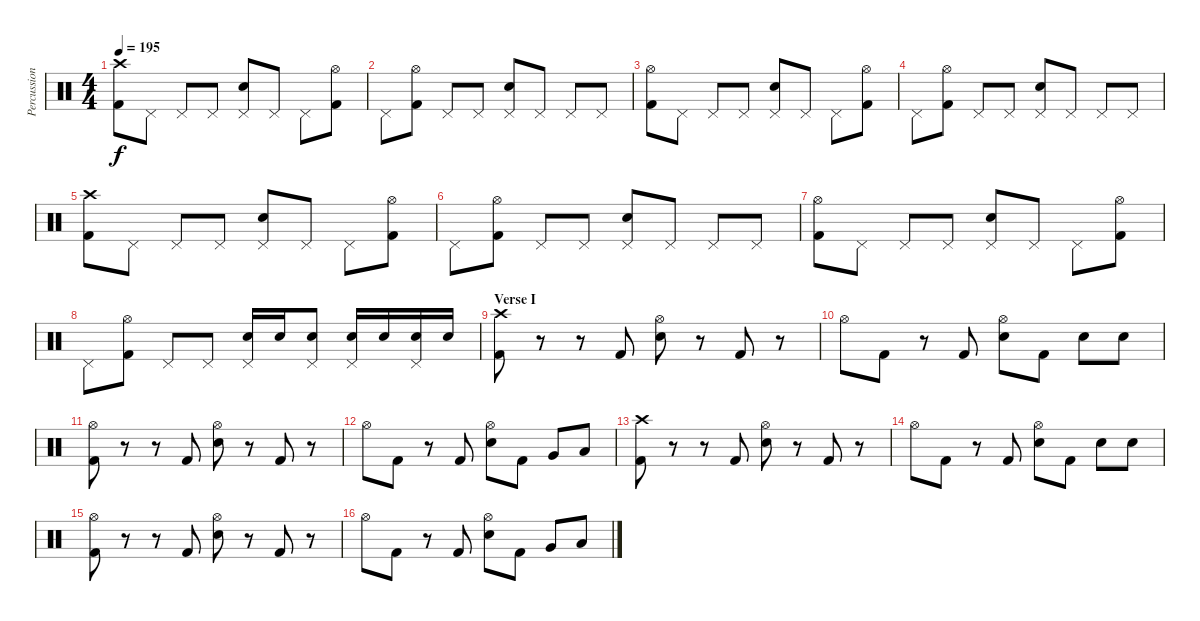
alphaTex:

\track ("Percussion" "Percussion") {instrument percussion}
\staff {score}
\articulation defaults
\ts (4 4)
\tempo 195
\clef neutral
\ks c
("Crash high (hit)" "Kick (hit) 2").8{dy f} "Pedal Hi-Hat (hit)".8 "Pedal Hi-Hat (hit)".8 "Pedal Hi-Hat (hit)".8 ("Pedal Hi-Hat (hit)" "Electric Snare (hit)").8 "Pedal Hi-Hat (hit)".8 "Pedal Hi-Hat (hit)".8 ("Hi-Hat (open)" "Kick (hit) 2").8 |
"Pedal Hi-Hat (hit)".8 ("Hi-Hat (open)" "Kick (hit) 2").8 "Pedal Hi-Hat (hit)".8 "Pedal Hi-Hat (hit)".8 ("Pedal Hi-Hat (hit)" "Electric Snare (hit)").8 "Pedal Hi-Hat (hit)".8 "Pedal Hi-Hat (hit)".8 "Pedal Hi-Hat (hit)".8 |
("Hi-Hat (open)" "Kick (hit) 2").8 "Pedal Hi-Hat (hit)".8 "Pedal Hi-Hat (hit)".8 "Pedal Hi-Hat (hit)".8 ("Pedal Hi-Hat (hit)" "Electric Snare (hit)").8 "Pedal Hi-Hat (hit)".8 "Pedal Hi-Hat (hit)".8 ("Hi-Hat (open)" "Kick (hit) 2").8 |
"Pedal Hi-Hat (hit)".8 ("Hi-Hat (open)" "Kick (hit) 2").8 "Pedal Hi-Hat (hit)".8 "Pedal Hi-Hat (hit)".8 ("Pedal Hi-Hat (hit)" "Electric Snare (hit)").8 "Pedal Hi-Hat (hit)".8 "Pedal Hi-Hat (hit)".8 "Pedal Hi-Hat (hit)".8 |
("Crash high (hit)" "Kick (hit) 2").8 "Pedal Hi-Hat (hit)".8 "Pedal Hi-Hat (hit)".8 "Pedal Hi-Hat (hit)".8 ("Pedal Hi-Hat (hit)" "Electric Snare (hit)").8 "Pedal Hi-Hat (hit)".8 "Pedal Hi-Hat (hit)".8 ("Hi-Hat (open)" "Kick (hit) 2").8 |
"Pedal Hi-Hat (hit)".8 ("Hi-Hat (open)" "Kick (hit) 2").8 "Pedal Hi-Hat (hit)".8 "Pedal Hi-Hat (hit)".8 ("Pedal Hi-Hat (hit)" "Electric Snare (hit)").8 "Pedal Hi-Hat (hit)".8 "Pedal Hi-Hat (hit)".8 "Pedal Hi-Hat (hit)".8 |
("Hi-Hat (open)" "Kick (hit) 2").8 "Pedal Hi-Hat (hit)".8 "Pedal Hi-Hat (hit)".8 "Pedal Hi-Hat (hit)".8 ("Pedal Hi-Hat (hit)" "Electric Snare (hit)").8 "Pedal Hi-Hat (hit)".8 "Pedal Hi-Hat (hit)".8 ("Hi-Hat (open)" "Kick (hit) 2").8 |
"Pedal Hi-Hat (hit)".8 ("Hi-Hat (open)" "Kick (hit) 2").8 "Pedal Hi-Hat (hit)".8 "Pedal Hi-Hat (hit)".8 ("Pedal Hi-Hat (hit)" "Electric Snare (hit)").16 "Electric Snare (hit)".16 ("Pedal Hi-Hat (hit)" "Electric Snare (hit)").8 ("Pedal Hi-Hat (hit)" "Electric Snare (hit)").16 "Electric Snare (hit)".16 ("Pedal Hi-Hat (hit)" "Electric Snare (hit)").16 "Electric Snare (hit)".16 |
\section ("" "Verse I")
("Crash high (hit)" "Kick (hit) 2").8 r.8 r.8 "Kick (hit) 2".8 ("Hi-Hat (open)" "Electric Snare (hit)").8 r.8 "Kick (hit) 2".8 r.8 |
"Hi-Hat (open)".8 "Kick (hit) 2".8 r.8 "Kick (hit) 2".8 ("Hi-Hat (open)" "Electric Snare (hit)").8 "Kick (hit) 2".8 "Electric Snare (hit)".8 "Electric Snare (hit)".8 |
("Hi-Hat (open)" "Kick (hit) 2").8 r.8 r.8 "Kick (hit) 2".8 ("Hi-Hat (open)" "Electric Snare (hit)").8 r.8 "Kick (hit) 2".8 r.8 |
"Hi-Hat (open)".8 "Kick (hit) 2".8 r.8 "Kick (hit) 2".8 ("Hi-Hat (open)" "Electric Snare (hit)").8 "Kick (hit) 2".8 "Very Low Tom (hit)".8 "Low Floor Tom (hit)".8 |
("Crash high (hit)" "Kick (hit) 2").8 r.8 r.8 "Kick (hit) 2".8 ("Hi-Hat (open)" "Electric Snare (hit)").8 r.8 "Kick (hit) 2".8 r.8 |
"Hi-Hat (open)".8 "Kick (hit) 2".8 r.8 "Kick (hit) 2".8 ("Hi-Hat (open)" "Electric Snare (hit)").8 "Kick (hit) 2".8 "Electric Snare (hit)".8 "Electric Snare (hit)".8 |
("Hi-Hat (open)" "Kick (hit) 2").8 r.8 r.8 "Kick (hit) 2".8 ("Hi-Hat (open)" "Electric Snare (hit)").8 r.8 "Kick (hit) 2".8 r.8 |
"Hi-Hat (open)".8 "Kick (hit) 2".8 r.8 "Kick (hit) 2".8 ("Hi-Hat (open)" "Electric Snare (hit)").8 "Kick (hit) 2".8 "Very Low Tom (hit)".8 "Low Floor Tom (hit)".8
